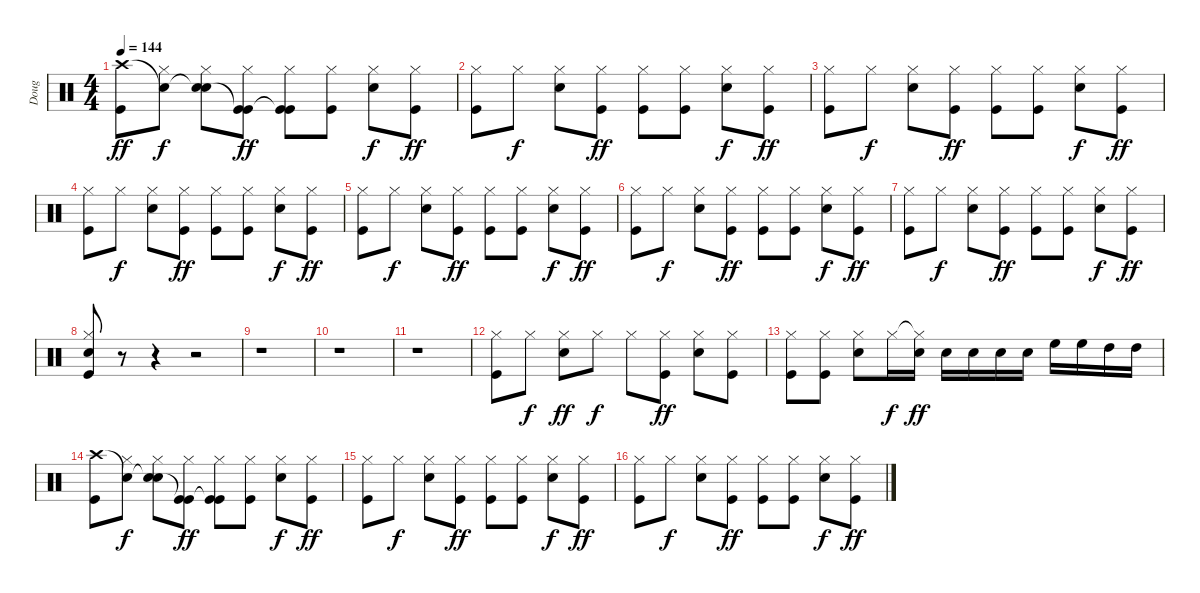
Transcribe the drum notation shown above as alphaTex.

\track ("Doug" "Doug") {instrument percussion}
\staff {score}
\articulation defaults
\ts (4 4)
\tempo 144
\clef neutral
\ks c
("Crash high (hit)" "Kick (hit)").8{dy ff} ("Snare (hit)"{t} "Hi-Hat (closed)").8{dy f} ("Electric Snare (hit)"{t} "Hi-Hat (closed)" "Electric Snare (hit)").8 ("Kick (hit)"{t} "Hi-Hat (closed)" "Kick (hit)").8{dy ff} ("Kick (hit)"{t} "Hi-Hat (closed)" "Kick (hit)").8 ("Hi-Hat (closed)" "Kick (hit)").8 ("Hi-Hat (closed)" "Electric Snare (hit)").8{dy f} ("Hi-Hat (closed)" "Kick (hit)").8{dy ff} |
("Hi-Hat (closed)" "Kick (hit)").8 "Hi-Hat (closed)".8{dy f} ("Hi-Hat (closed)" "Electric Snare (hit)").8 ("Hi-Hat (closed)" "Kick (hit)").8{dy ff} ("Hi-Hat (closed)" "Kick (hit)").8 ("Hi-Hat (closed)" "Kick (hit)").8 ("Hi-Hat (closed)" "Electric Snare (hit)").8{dy f} ("Hi-Hat (closed)" "Kick (hit)").8{dy ff} |
("Hi-Hat (closed)" "Kick (hit)").8 "Hi-Hat (closed)".8{dy f} ("Hi-Hat (closed)" "Electric Snare (hit)").8 ("Hi-Hat (closed)" "Kick (hit)").8{dy ff} ("Hi-Hat (closed)" "Kick (hit)").8 ("Hi-Hat (closed)" "Kick (hit)").8 ("Hi-Hat (closed)" "Electric Snare (hit)").8{dy f} ("Hi-Hat (closed)" "Kick (hit)").8{dy ff} |
("Hi-Hat (closed)" "Kick (hit)").8 "Hi-Hat (closed)".8{dy f} ("Hi-Hat (closed)" "Electric Snare (hit)").8 ("Hi-Hat (closed)" "Kick (hit)").8{dy ff} ("Hi-Hat (closed)" "Kick (hit)").8 ("Hi-Hat (closed)" "Kick (hit)").8 ("Hi-Hat (closed)" "Electric Snare (hit)").8{dy f} ("Hi-Hat (closed)" "Kick (hit)").8{dy ff} |
("Hi-Hat (closed)" "Kick (hit)").8 "Hi-Hat (closed)".8{dy f} ("Hi-Hat (closed)" "Electric Snare (hit)").8 ("Hi-Hat (closed)" "Kick (hit)").8{dy ff} ("Hi-Hat (closed)" "Kick (hit)").8 ("Hi-Hat (closed)" "Kick (hit)").8 ("Hi-Hat (closed)" "Electric Snare (hit)").8{dy f} ("Hi-Hat (closed)" "Kick (hit)").8{dy ff} |
("Hi-Hat (closed)" "Kick (hit)").8 "Hi-Hat (closed)".8{dy f} ("Hi-Hat (closed)" "Electric Snare (hit)").8 ("Hi-Hat (closed)" "Kick (hit)").8{dy ff} ("Hi-Hat (closed)" "Kick (hit)").8 ("Hi-Hat (closed)" "Kick (hit)").8 ("Hi-Hat (closed)" "Electric Snare (hit)").8{dy f} ("Hi-Hat (closed)" "Kick (hit)").8{dy ff} |
("Hi-Hat (closed)" "Kick (hit)").8 "Hi-Hat (closed)".8{dy f} ("Hi-Hat (closed)" "Electric Snare (hit)").8 ("Hi-Hat (closed)" "Kick (hit)").8{dy ff} ("Hi-Hat (closed)" "Kick (hit)").8 ("Hi-Hat (closed)" "Kick (hit)").8 ("Hi-Hat (closed)" "Electric Snare (hit)").8{dy f} ("Hi-Hat (closed)" "Kick (hit)").8{dy ff} |
("Hi-Hat (closed)" "Electric Snare (hit)" "Kick (hit)").8 r.8 r.4 r.2 |
r.1 |
r.1 |
r.1 |
("Hi-Hat (closed)" "Kick (hit)").8 "Hi-Hat (closed)".8{dy f} ("Hi-Hat (closed)" "Electric Snare (hit)").8{dy ff} "Hi-Hat (closed)".8{dy f} "Hi-Hat (closed)".8 ("Hi-Hat (closed)" "Kick (hit)").8{dy ff} ("Hi-Hat (closed)" "Electric Snare (hit)").8 ("Hi-Hat (closed)" "Kick (hit)").8 |
("Hi-Hat (closed)" "Kick (hit)").8 ("Hi-Hat (closed)" "Kick (hit)").8 ("Hi-Hat (closed)" "Electric Snare (hit)").8 "Hi-Hat (closed)".16{dy f} ("Hi-Hat (closed)"{t} "Electric Snare (hit)").16{dy ff} "Electric Snare (hit)".16 "Electric Snare (hit)".16 "Electric Snare (hit)".16 "Electric Snare (hit)".16 "High Floor Tom (hit)".16 "High Floor Tom (hit)".16 "High Tom (hit)".16 "High Tom (hit)".16 |
("Crash high (hit)" "Kick (hit)").8 ("Snare (hit)"{t} "Hi-Hat (closed)").8{dy f} ("Electric Snare (hit)"{t} "Hi-Hat (closed)" "Electric Snare (hit)").8 ("Kick (hit)"{t} "Hi-Hat (closed)" "Kick (hit)").8{dy ff} ("Kick (hit)"{t} "Hi-Hat (closed)" "Kick (hit)").8 ("Hi-Hat (closed)" "Kick (hit)").8 ("Hi-Hat (closed)" "Electric Snare (hit)").8{dy f} ("Hi-Hat (closed)" "Kick (hit)").8{dy ff} |
("Hi-Hat (closed)" "Kick (hit)").8 "Hi-Hat (closed)".8{dy f} ("Hi-Hat (closed)" "Electric Snare (hit)").8 ("Hi-Hat (closed)" "Kick (hit)").8{dy ff} ("Hi-Hat (closed)" "Kick (hit)").8 ("Hi-Hat (closed)" "Kick (hit)").8 ("Hi-Hat (closed)" "Electric Snare (hit)").8{dy f} ("Hi-Hat (closed)" "Kick (hit)").8{dy ff} |
("Hi-Hat (closed)" "Kick (hit)").8 "Hi-Hat (closed)".8{dy f} ("Hi-Hat (closed)" "Electric Snare (hit)").8 ("Hi-Hat (closed)" "Kick (hit)").8{dy ff} ("Hi-Hat (closed)" "Kick (hit)").8 ("Hi-Hat (closed)" "Kick (hit)").8 ("Hi-Hat (closed)" "Electric Snare (hit)").8{dy f} ("Hi-Hat (closed)" "Kick (hit)").8{dy ff}
